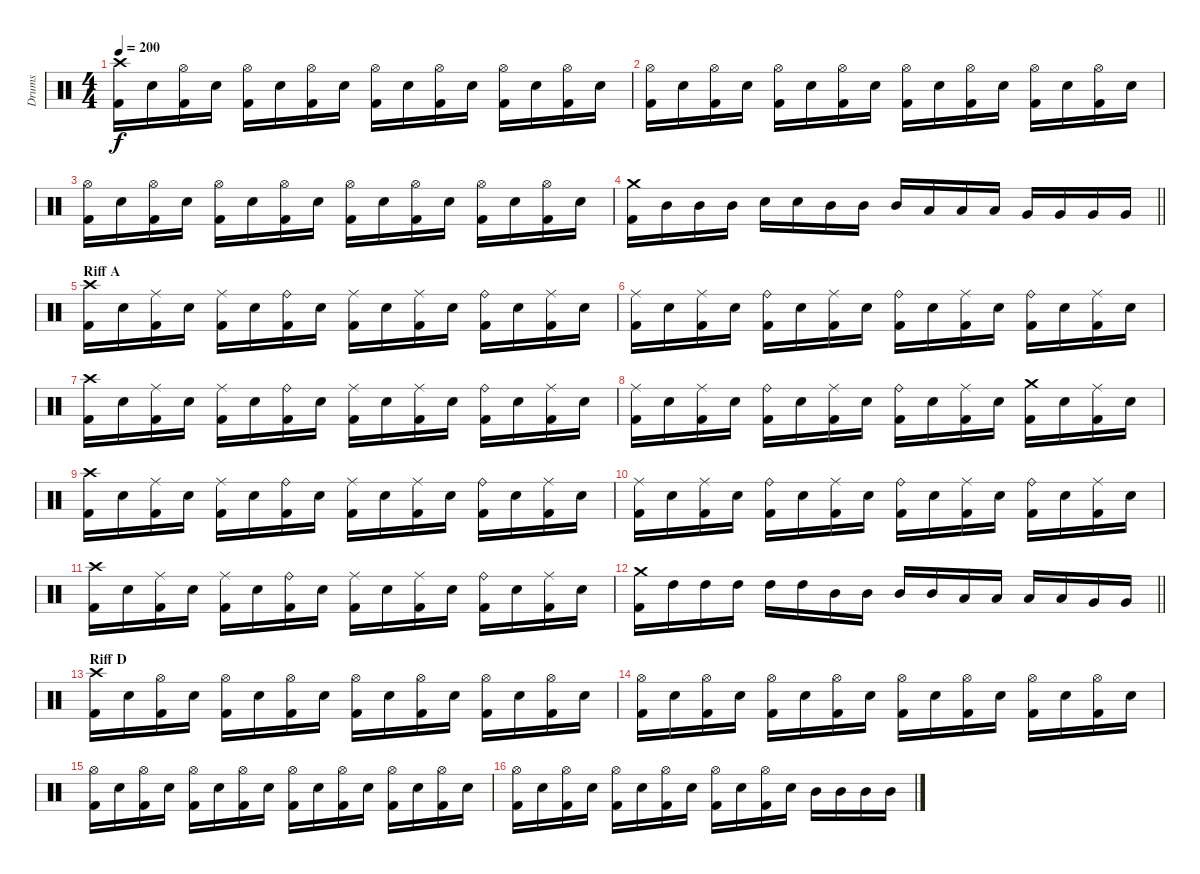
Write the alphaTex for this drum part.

\track ("Drums" "Drums") {instrument percussion}
\staff {score}
\articulation defaults
\ts (4 4)
\tempo 200
\clef neutral
\ks c
("Crash high (hit)" "Kick (hit) 2").16{dy f} "Electric Snare (hit)".16 ("Hi-Hat (open)" "Kick (hit) 2").16 "Electric Snare (hit)".16 ("Hi-Hat (open)" "Kick (hit) 2").16 "Electric Snare (hit)".16 ("Hi-Hat (open)" "Kick (hit) 2").16 "Electric Snare (hit)".16 ("Hi-Hat (open)" "Kick (hit) 2").16 "Electric Snare (hit)".16 ("Hi-Hat (open)" "Kick (hit) 2").16 "Electric Snare (hit)".16 ("Hi-Hat (open)" "Kick (hit) 2").16 "Electric Snare (hit)".16 ("Hi-Hat (open)" "Kick (hit) 2").16 "Electric Snare (hit)".16 |
("Hi-Hat (open)" "Kick (hit) 2").16 "Electric Snare (hit)".16 ("Hi-Hat (open)" "Kick (hit) 2").16 "Electric Snare (hit)".16 ("Hi-Hat (open)" "Kick (hit) 2").16 "Electric Snare (hit)".16 ("Hi-Hat (open)" "Kick (hit) 2").16 "Electric Snare (hit)".16 ("Hi-Hat (open)" "Kick (hit) 2").16 "Electric Snare (hit)".16 ("Hi-Hat (open)" "Kick (hit) 2").16 "Electric Snare (hit)".16 ("Hi-Hat (open)" "Kick (hit) 2").16 "Electric Snare (hit)".16 ("Hi-Hat (open)" "Kick (hit) 2").16 "Electric Snare (hit)".16 |
("Hi-Hat (open)" "Kick (hit) 2").16 "Electric Snare (hit)".16 ("Hi-Hat (open)" "Kick (hit) 2").16 "Electric Snare (hit)".16 ("Hi-Hat (open)" "Kick (hit) 2").16 "Electric Snare (hit)".16 ("Hi-Hat (open)" "Kick (hit) 2").16 "Electric Snare (hit)".16 ("Hi-Hat (open)" "Kick (hit) 2").16 "Electric Snare (hit)".16 ("Hi-Hat (open)" "Kick (hit) 2").16 "Electric Snare (hit)".16 ("Hi-Hat (open)" "Kick (hit) 2").16 "Electric Snare (hit)".16 ("Hi-Hat (open)" "Kick (hit) 2").16 "Electric Snare (hit)".16 |
\barLineRight lightlight
("Crash medium (hit)" "Kick (hit) 2").16 "Mid Tom (hit)".16 "Mid Tom (hit)".16 "Mid Tom (hit)".16 "Electric Snare (hit)".16 "Electric Snare (hit)".16 "Mid Tom (hit)".16 "Mid Tom (hit)".16 "Mid Tom (hit)".16 "Low Tom (hit)".16 "Low Tom (hit)".16 "Low Tom (hit)".16 "Very Low Tom (hit)".16 "Very Low Tom (hit)".16 "Very Low Tom (hit)".16 "Very Low Tom (hit)".16 |
\section ("" "Riff A")
("Crash high (hit)" "Kick (hit) 2").16 "Electric Snare (hit)".16 ("Ride (middle)" "Kick (hit) 2").16 "Electric Snare (hit)".16 ("Ride (middle)" "Kick (hit) 2").16 "Electric Snare (hit)".16 ("Ride (bell)" "Kick (hit) 2").16 "Electric Snare (hit)".16 ("Ride (middle)" "Kick (hit) 2").16 "Electric Snare (hit)".16 ("Ride (middle)" "Kick (hit) 2").16 "Electric Snare (hit)".16 ("Ride (bell)" "Kick (hit) 2").16 "Electric Snare (hit)".16 ("Ride (middle)" "Kick (hit) 2").16 "Electric Snare (hit)".16 |
("Ride (middle)" "Kick (hit) 2").16 "Electric Snare (hit)".16 ("Ride (middle)" "Kick (hit) 2").16 "Electric Snare (hit)".16 ("Ride (bell)" "Kick (hit) 2").16 "Electric Snare (hit)".16 ("Ride (middle)" "Kick (hit) 2").16 "Electric Snare (hit)".16 ("Ride (bell)" "Kick (hit) 2").16 "Electric Snare (hit)".16 ("Ride (middle)" "Kick (hit) 2").16 "Electric Snare (hit)".16 ("Ride (bell)" "Kick (hit) 2").16 "Electric Snare (hit)".16 ("Ride (middle)" "Kick (hit) 2").16 "Electric Snare (hit)".16 |
("Crash high (hit)" "Kick (hit) 2").16 "Electric Snare (hit)".16 ("Ride (middle)" "Kick (hit) 2").16 "Electric Snare (hit)".16 ("Ride (middle)" "Kick (hit) 2").16 "Electric Snare (hit)".16 ("Ride (bell)" "Kick (hit) 2").16 "Electric Snare (hit)".16 ("Ride (middle)" "Kick (hit) 2").16 "Electric Snare (hit)".16 ("Ride (middle)" "Kick (hit) 2").16 "Electric Snare (hit)".16 ("Ride (bell)" "Kick (hit) 2").16 "Electric Snare (hit)".16 ("Ride (middle)" "Kick (hit) 2").16 "Electric Snare (hit)".16 |
("Ride (middle)" "Kick (hit) 2").16 "Electric Snare (hit)".16 ("Ride (middle)" "Kick (hit) 2").16 "Electric Snare (hit)".16 ("Ride (bell)" "Kick (hit) 2").16 "Electric Snare (hit)".16 ("Ride (middle)" "Kick (hit) 2").16 "Electric Snare (hit)".16 ("Ride (bell)" "Kick (hit) 2").16 "Electric Snare (hit)".16 ("Ride (middle)" "Kick (hit) 2").16 "Electric Snare (hit)".16 ("Crash medium (hit)" "Kick (hit) 2").16 "Electric Snare (hit)".16 ("Ride (middle)" "Kick (hit) 2").16 "Electric Snare (hit)".16 |
("Crash high (hit)" "Kick (hit) 2").16 "Electric Snare (hit)".16 ("Ride (middle)" "Kick (hit) 2").16 "Electric Snare (hit)".16 ("Ride (middle)" "Kick (hit) 2").16 "Electric Snare (hit)".16 ("Ride (bell)" "Kick (hit) 2").16 "Electric Snare (hit)".16 ("Ride (middle)" "Kick (hit) 2").16 "Electric Snare (hit)".16 ("Ride (middle)" "Kick (hit) 2").16 "Electric Snare (hit)".16 ("Ride (bell)" "Kick (hit) 2").16 "Electric Snare (hit)".16 ("Ride (middle)" "Kick (hit) 2").16 "Electric Snare (hit)".16 |
("Ride (middle)" "Kick (hit) 2").16 "Electric Snare (hit)".16 ("Ride (middle)" "Kick (hit) 2").16 "Electric Snare (hit)".16 ("Ride (bell)" "Kick (hit) 2").16 "Electric Snare (hit)".16 ("Ride (middle)" "Kick (hit) 2").16 "Electric Snare (hit)".16 ("Ride (bell)" "Kick (hit) 2").16 "Electric Snare (hit)".16 ("Ride (middle)" "Kick (hit) 2").16 "Electric Snare (hit)".16 ("Ride (bell)" "Kick (hit) 2").16 "Electric Snare (hit)".16 ("Ride (middle)" "Kick (hit) 2").16 "Electric Snare (hit)".16 |
("Crash high (hit)" "Kick (hit) 2").16 "Electric Snare (hit)".16 ("Ride (middle)" "Kick (hit) 2").16 "Electric Snare (hit)".16 ("Ride (middle)" "Kick (hit) 2").16 "Electric Snare (hit)".16 ("Ride (bell)" "Kick (hit) 2").16 "Electric Snare (hit)".16 ("Ride (middle)" "Kick (hit) 2").16 "Electric Snare (hit)".16 ("Ride (middle)" "Kick (hit) 2").16 "Electric Snare (hit)".16 ("Ride (bell)" "Kick (hit) 2").16 "Electric Snare (hit)".16 ("Ride (middle)" "Kick (hit) 2").16 "Electric Snare (hit)".16 |
\barLineRight lightlight
("Crash medium (hit)" "Kick (hit) 2").16 "High Tom (hit)".16 "High Tom (hit)".16 "High Tom (hit)".16 "High Tom (hit)".16 "High Tom (hit)".16 "Mid Tom (hit)".16 "Mid Tom (hit)".16 "Mid Tom (hit)".16 "Mid Tom (hit)".16 "Low Tom (hit)".16 "Low Tom (hit)".16 "Low Tom (hit)".16 "Low Tom (hit)".16 "Very Low Tom (hit)".16 "Very Low Tom (hit)".16 |
\section ("" "Riff D")
("Crash high (hit)" "Kick (hit) 2").16 "Electric Snare (hit)".16 ("Hi-Hat (open)" "Kick (hit) 2").16 "Electric Snare (hit)".16 ("Hi-Hat (open)" "Kick (hit) 2").16 "Electric Snare (hit)".16 ("Hi-Hat (open)" "Kick (hit) 2").16 "Electric Snare (hit)".16 ("Hi-Hat (open)" "Kick (hit) 2").16 "Electric Snare (hit)".16 ("Hi-Hat (open)" "Kick (hit) 2").16 "Electric Snare (hit)".16 ("Hi-Hat (open)" "Kick (hit) 2").16 "Electric Snare (hit)".16 ("Hi-Hat (open)" "Kick (hit) 2").16 "Electric Snare (hit)".16 |
("Hi-Hat (open)" "Kick (hit) 2").16 "Electric Snare (hit)".16 ("Hi-Hat (open)" "Kick (hit) 2").16 "Electric Snare (hit)".16 ("Hi-Hat (open)" "Kick (hit) 2").16 "Electric Snare (hit)".16 ("Hi-Hat (open)" "Kick (hit) 2").16 "Electric Snare (hit)".16 ("Hi-Hat (open)" "Kick (hit) 2").16 "Electric Snare (hit)".16 ("Hi-Hat (open)" "Kick (hit) 2").16 "Electric Snare (hit)".16 ("Hi-Hat (open)" "Kick (hit) 2").16 "Electric Snare (hit)".16 ("Hi-Hat (open)" "Kick (hit) 2").16 "Electric Snare (hit)".16 |
("Hi-Hat (open)" "Kick (hit) 2").16 "Electric Snare (hit)".16 ("Hi-Hat (open)" "Kick (hit) 2").16 "Electric Snare (hit)".16 ("Hi-Hat (open)" "Kick (hit) 2").16 "Electric Snare (hit)".16 ("Hi-Hat (open)" "Kick (hit) 2").16 "Electric Snare (hit)".16 ("Hi-Hat (open)" "Kick (hit) 2").16 "Electric Snare (hit)".16 ("Hi-Hat (open)" "Kick (hit) 2").16 "Electric Snare (hit)".16 ("Hi-Hat (open)" "Kick (hit) 2").16 "Electric Snare (hit)".16 ("Hi-Hat (open)" "Kick (hit) 2").16 "Electric Snare (hit)".16 |
("Hi-Hat (open)" "Kick (hit) 2").16 "Electric Snare (hit)".16 ("Hi-Hat (open)" "Kick (hit) 2").16 "Electric Snare (hit)".16 ("Hi-Hat (open)" "Kick (hit) 2").16 "Electric Snare (hit)".16 ("Hi-Hat (open)" "Kick (hit) 2").16 "Electric Snare (hit)".16 ("Hi-Hat (open)" "Kick (hit) 2").16 "Electric Snare (hit)".16 ("Hi-Hat (open)" "Kick (hit) 2").16 "Electric Snare (hit)".16 "Mid Tom (hit)".16 "Mid Tom (hit)".16 "Mid Tom (hit)".16 "Mid Tom (hit)".16
